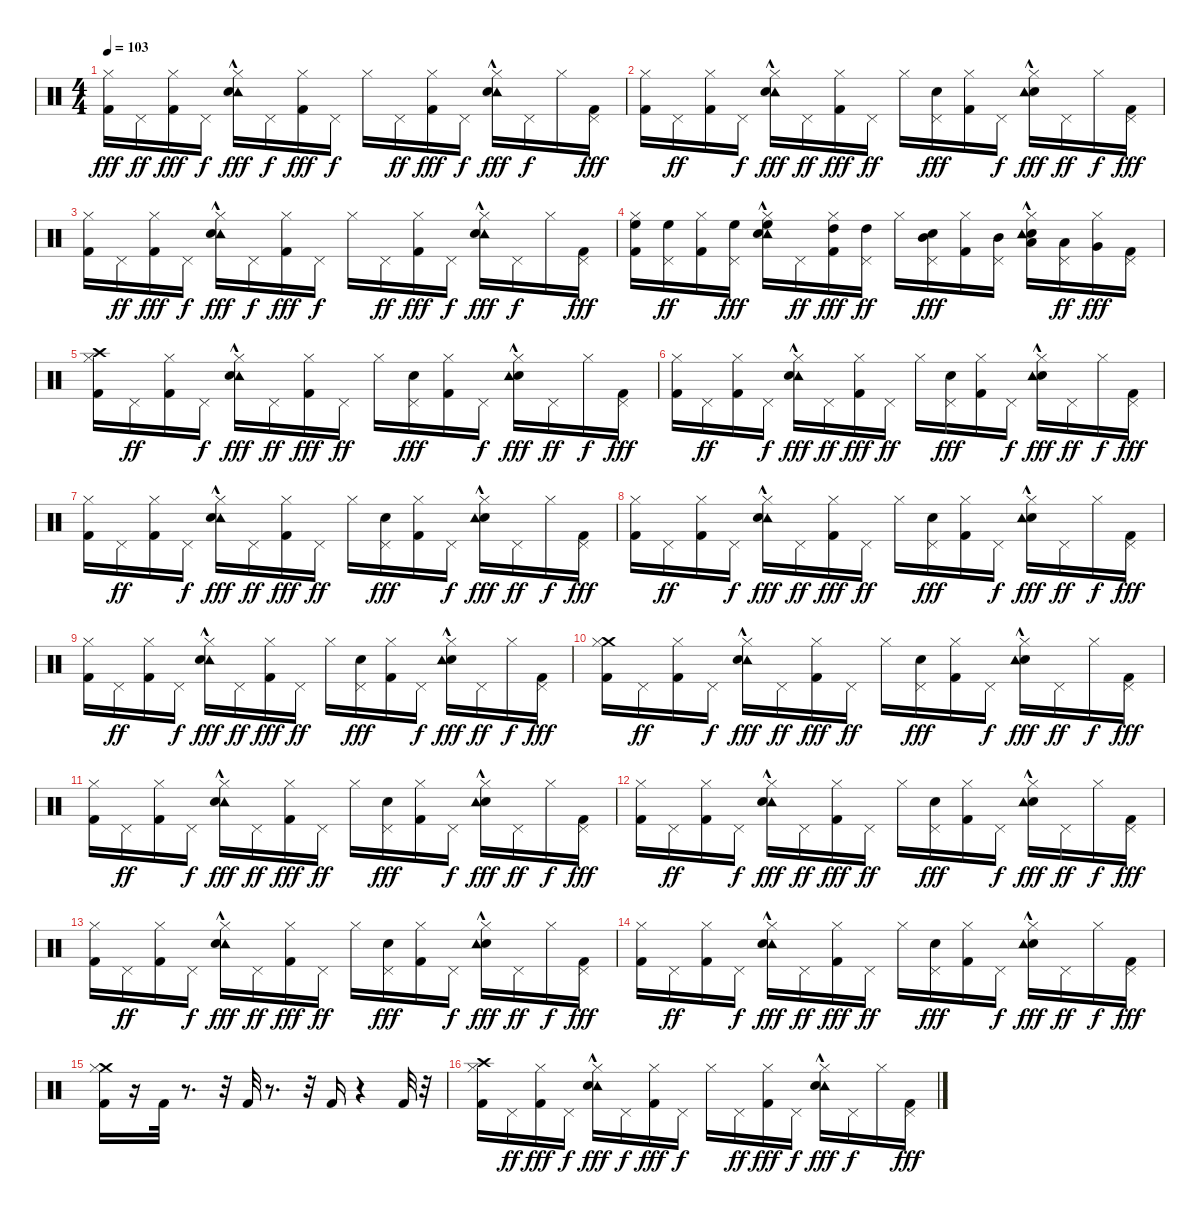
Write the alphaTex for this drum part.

\track "" {instrument percussion}
\staff {score}
\articulation defaults
\ts (4 4)
\tempo 103
\clef neutral
\ks c
("Hi-Hat (closed)" "Kick (hit) 2").16{dy fff} "Pedal Hi-Hat (hit)".16{dy ff} ("Hi-Hat (closed)" "Kick (hit) 2").16{dy fff} "Pedal Hi-Hat (hit)".16{dy f} ("Tambourine (hit)"{hac} "Hi-Hat (closed)" "Electric Snare (hit)").16{dy fff} "Pedal Hi-Hat (hit)".16{dy f} ("Kick (hit) 2" "Hi-Hat (closed)").16{dy fff} "Pedal Hi-Hat (hit)".16{dy f} "Hi-Hat (closed)".16 "Pedal Hi-Hat (hit)".16{dy ff} ("Kick (hit) 2" "Hi-Hat (closed)").16{dy fff} "Pedal Hi-Hat (hit)".16{dy f} ("Tambourine (hit)"{hac} "Electric Snare (hit)" "Hi-Hat (closed)").16{dy fff} "Pedal Hi-Hat (hit)".16{dy f} "Hi-Hat (closed)".16 ("Kick (hit) 2" "Pedal Hi-Hat (hit)").16{dy fff} |
("Kick (hit) 2" "Hi-Hat (closed)").16 "Pedal Hi-Hat (hit)".16{dy ff} ("Kick (hit) 2" "Hi-Hat (closed)").16 "Pedal Hi-Hat (hit)".16{dy f} ("Tambourine (hit)"{hac} "Hi-Hat (closed)" "Electric Snare (hit)").16{dy fff} "Pedal Hi-Hat (hit)".16{dy ff} ("Hi-Hat (closed)" "Kick (hit) 2").16{dy fff} "Pedal Hi-Hat (hit)".16{dy ff} "Hi-Hat (closed)".16 ("Pedal Hi-Hat (hit)" "Electric Snare (hit)").16{dy fff} ("Kick (hit) 2" "Hi-Hat (closed)").16 "Pedal Hi-Hat (hit)".16{dy f} ("Electric Snare (hit)" "Hi-Hat (closed)" "Tambourine (hit)"{hac}).16{dy fff} "Pedal Hi-Hat (hit)".16{dy ff} "Hi-Hat (closed)".16{dy f} ("Pedal Hi-Hat (hit)" "Kick (hit) 2").16{dy fff} |
("Hi-Hat (closed)" "Kick (hit) 2").16 "Pedal Hi-Hat (hit)".16{dy ff} ("Hi-Hat (closed)" "Kick (hit) 2").16{dy fff} "Pedal Hi-Hat (hit)".16{dy f} ("Tambourine (hit)"{hac} "Hi-Hat (closed)" "Electric Snare (hit)").16{dy fff} "Pedal Hi-Hat (hit)".16{dy f} ("Kick (hit) 2" "Hi-Hat (closed)").16{dy fff} "Pedal Hi-Hat (hit)".16{dy f} "Hi-Hat (closed)".16 "Pedal Hi-Hat (hit)".16{dy ff} ("Kick (hit) 2" "Hi-Hat (closed)").16{dy fff} "Pedal Hi-Hat (hit)".16{dy f} ("Tambourine (hit)"{hac} "Electric Snare (hit)" "Hi-Hat (closed)").16{dy fff} "Pedal Hi-Hat (hit)".16{dy f} "Hi-Hat (closed)".16 ("Kick (hit) 2" "Pedal Hi-Hat (hit)").16{dy fff} |
("High Floor Tom (hit)" "Kick (hit) 2" "Hi-Hat (closed)").16 ("High Floor Tom (hit)" "Pedal Hi-Hat (hit)").16{dy ff} ("Kick (hit) 2" "Hi-Hat (closed)").16 ("High Floor Tom (hit)" "Pedal Hi-Hat (hit)").16{dy fff} ("High Floor Tom (hit)" "Tambourine (hit)"{hac} "Hi-Hat (closed)" "Electric Snare (hit)").16 "Pedal Hi-Hat (hit)".16{dy ff} ("High Tom (hit)" "Hi-Hat (closed)" "Kick (hit) 2").16{dy fff} ("High Tom (hit)" "Pedal Hi-Hat (hit)").16{dy ff} "Hi-Hat (closed)".16 ("Mid Tom (hit)" "Pedal Hi-Hat (hit)" "Electric Snare (hit)").16{dy fff} ("Kick (hit) 2" "Hi-Hat (closed)").16 ("Mid Tom (hit)" "Pedal Hi-Hat (hit)").16 ("Low Tom (hit)" "Electric Snare (hit)" "Hi-Hat (closed)" "Tambourine (hit)"{hac}).16 ("Low Tom (hit)" "Pedal Hi-Hat (hit)").16{dy ff} ("Very Low Tom (hit)" "Hi-Hat (closed)").16{dy fff} ("Pedal Hi-Hat (hit)" "Kick (hit) 2").16 |
("Crash high (hit)" "Kick (hit) 2" "Hi-Hat (closed)").16 "Pedal Hi-Hat (hit)".16{dy ff} ("Kick (hit) 2" "Hi-Hat (closed)").16 "Pedal Hi-Hat (hit)".16{dy f} ("Tambourine (hit)"{hac} "Hi-Hat (closed)" "Electric Snare (hit)").16{dy fff} "Pedal Hi-Hat (hit)".16{dy ff} ("Hi-Hat (closed)" "Kick (hit) 2").16{dy fff} "Pedal Hi-Hat (hit)".16{dy ff} "Hi-Hat (closed)".16 ("Pedal Hi-Hat (hit)" "Electric Snare (hit)").16{dy fff} ("Kick (hit) 2" "Hi-Hat (closed)").16 "Pedal Hi-Hat (hit)".16{dy f} ("Electric Snare (hit)" "Hi-Hat (closed)" "Tambourine (hit)"{hac}).16{dy fff} "Pedal Hi-Hat (hit)".16{dy ff} "Hi-Hat (closed)".16{dy f} ("Pedal Hi-Hat (hit)" "Kick (hit) 2").16{dy fff} |
("Kick (hit) 2" "Hi-Hat (closed)").16 "Pedal Hi-Hat (hit)".16{dy ff} ("Kick (hit) 2" "Hi-Hat (closed)").16 "Pedal Hi-Hat (hit)".16{dy f} ("Tambourine (hit)"{hac} "Hi-Hat (closed)" "Electric Snare (hit)").16{dy fff} "Pedal Hi-Hat (hit)".16{dy ff} ("Hi-Hat (closed)" "Kick (hit) 2").16{dy fff} "Pedal Hi-Hat (hit)".16{dy ff} "Hi-Hat (closed)".16 ("Pedal Hi-Hat (hit)" "Electric Snare (hit)").16{dy fff} ("Kick (hit) 2" "Hi-Hat (closed)").16 "Pedal Hi-Hat (hit)".16{dy f} ("Electric Snare (hit)" "Hi-Hat (closed)" "Tambourine (hit)"{hac}).16{dy fff} "Pedal Hi-Hat (hit)".16{dy ff} "Hi-Hat (closed)".16{dy f} ("Pedal Hi-Hat (hit)" "Kick (hit) 2").16{dy fff} |
("Kick (hit) 2" "Hi-Hat (closed)").16 "Pedal Hi-Hat (hit)".16{dy ff} ("Kick (hit) 2" "Hi-Hat (closed)").16 "Pedal Hi-Hat (hit)".16{dy f} ("Tambourine (hit)"{hac} "Hi-Hat (closed)" "Electric Snare (hit)").16{dy fff} "Pedal Hi-Hat (hit)".16{dy ff} ("Hi-Hat (closed)" "Kick (hit) 2").16{dy fff} "Pedal Hi-Hat (hit)".16{dy ff} "Hi-Hat (closed)".16 ("Pedal Hi-Hat (hit)" "Electric Snare (hit)").16{dy fff} ("Kick (hit) 2" "Hi-Hat (closed)").16 "Pedal Hi-Hat (hit)".16{dy f} ("Electric Snare (hit)" "Hi-Hat (closed)" "Tambourine (hit)"{hac}).16{dy fff} "Pedal Hi-Hat (hit)".16{dy ff} "Hi-Hat (closed)".16{dy f} ("Pedal Hi-Hat (hit)" "Kick (hit) 2").16{dy fff} |
("Kick (hit) 2" "Hi-Hat (closed)").16 "Pedal Hi-Hat (hit)".16{dy ff} ("Kick (hit) 2" "Hi-Hat (closed)").16 "Pedal Hi-Hat (hit)".16{dy f} ("Tambourine (hit)"{hac} "Hi-Hat (closed)" "Electric Snare (hit)").16{dy fff} "Pedal Hi-Hat (hit)".16{dy ff} ("Hi-Hat (closed)" "Kick (hit) 2").16{dy fff} "Pedal Hi-Hat (hit)".16{dy ff} "Hi-Hat (closed)".16 ("Pedal Hi-Hat (hit)" "Electric Snare (hit)").16{dy fff} ("Kick (hit) 2" "Hi-Hat (closed)").16 "Pedal Hi-Hat (hit)".16{dy f} ("Electric Snare (hit)" "Hi-Hat (closed)" "Tambourine (hit)"{hac}).16{dy fff} "Pedal Hi-Hat (hit)".16{dy ff} "Hi-Hat (closed)".16{dy f} ("Pedal Hi-Hat (hit)" "Kick (hit) 2").16{dy fff} |
("Kick (hit) 2" "Hi-Hat (closed)").16 "Pedal Hi-Hat (hit)".16{dy ff} ("Kick (hit) 2" "Hi-Hat (closed)").16 "Pedal Hi-Hat (hit)".16{dy f} ("Tambourine (hit)"{hac} "Hi-Hat (closed)" "Electric Snare (hit)").16{dy fff} "Pedal Hi-Hat (hit)".16{dy ff} ("Hi-Hat (closed)" "Kick (hit) 2").16{dy fff} "Pedal Hi-Hat (hit)".16{dy ff} "Hi-Hat (closed)".16 ("Pedal Hi-Hat (hit)" "Electric Snare (hit)").16{dy fff} ("Kick (hit) 2" "Hi-Hat (closed)").16 "Pedal Hi-Hat (hit)".16{dy f} ("Electric Snare (hit)" "Hi-Hat (closed)" "Tambourine (hit)"{hac}).16{dy fff} "Pedal Hi-Hat (hit)".16{dy ff} "Hi-Hat (closed)".16{dy f} ("Pedal Hi-Hat (hit)" "Kick (hit) 2").16{dy fff} |
("Crash medium (hit)" "Kick (hit) 2" "Hi-Hat (closed)").16 "Pedal Hi-Hat (hit)".16{dy ff} ("Kick (hit) 2" "Hi-Hat (closed)").16 "Pedal Hi-Hat (hit)".16{dy f} ("Tambourine (hit)"{hac} "Hi-Hat (closed)" "Electric Snare (hit)").16{dy fff} "Pedal Hi-Hat (hit)".16{dy ff} ("Hi-Hat (closed)" "Kick (hit) 2").16{dy fff} "Pedal Hi-Hat (hit)".16{dy ff} "Hi-Hat (closed)".16 ("Pedal Hi-Hat (hit)" "Electric Snare (hit)").16{dy fff} ("Kick (hit) 2" "Hi-Hat (closed)").16 "Pedal Hi-Hat (hit)".16{dy f} ("Electric Snare (hit)" "Hi-Hat (closed)" "Tambourine (hit)"{hac}).16{dy fff} "Pedal Hi-Hat (hit)".16{dy ff} "Hi-Hat (closed)".16{dy f} ("Pedal Hi-Hat (hit)" "Kick (hit) 2").16{dy fff} |
("Kick (hit) 2" "Hi-Hat (closed)").16 "Pedal Hi-Hat (hit)".16{dy ff} ("Kick (hit) 2" "Hi-Hat (closed)").16 "Pedal Hi-Hat (hit)".16{dy f} ("Tambourine (hit)"{hac} "Hi-Hat (closed)" "Electric Snare (hit)").16{dy fff} "Pedal Hi-Hat (hit)".16{dy ff} ("Hi-Hat (closed)" "Kick (hit) 2").16{dy fff} "Pedal Hi-Hat (hit)".16{dy ff} "Hi-Hat (closed)".16 ("Pedal Hi-Hat (hit)" "Electric Snare (hit)").16{dy fff} ("Kick (hit) 2" "Hi-Hat (closed)").16 "Pedal Hi-Hat (hit)".16{dy f} ("Electric Snare (hit)" "Hi-Hat (closed)" "Tambourine (hit)"{hac}).16{dy fff} "Pedal Hi-Hat (hit)".16{dy ff} "Hi-Hat (closed)".16{dy f} ("Pedal Hi-Hat (hit)" "Kick (hit) 2").16{dy fff} |
("Kick (hit) 2" "Hi-Hat (closed)").16 "Pedal Hi-Hat (hit)".16{dy ff} ("Kick (hit) 2" "Hi-Hat (closed)").16 "Pedal Hi-Hat (hit)".16{dy f} ("Tambourine (hit)"{hac} "Hi-Hat (closed)" "Electric Snare (hit)").16{dy fff} "Pedal Hi-Hat (hit)".16{dy ff} ("Hi-Hat (closed)" "Kick (hit) 2").16{dy fff} "Pedal Hi-Hat (hit)".16{dy ff} "Hi-Hat (closed)".16 ("Pedal Hi-Hat (hit)" "Electric Snare (hit)").16{dy fff} ("Kick (hit) 2" "Hi-Hat (closed)").16 "Pedal Hi-Hat (hit)".16{dy f} ("Electric Snare (hit)" "Hi-Hat (closed)" "Tambourine (hit)"{hac}).16{dy fff} "Pedal Hi-Hat (hit)".16{dy ff} "Hi-Hat (closed)".16{dy f} ("Pedal Hi-Hat (hit)" "Kick (hit) 2").16{dy fff} |
("Kick (hit) 2" "Hi-Hat (closed)").16 "Pedal Hi-Hat (hit)".16{dy ff} ("Kick (hit) 2" "Hi-Hat (closed)").16 "Pedal Hi-Hat (hit)".16{dy f} ("Tambourine (hit)"{hac} "Hi-Hat (closed)" "Electric Snare (hit)").16{dy fff} "Pedal Hi-Hat (hit)".16{dy ff} ("Hi-Hat (closed)" "Kick (hit) 2").16{dy fff} "Pedal Hi-Hat (hit)".16{dy ff} "Hi-Hat (closed)".16 ("Pedal Hi-Hat (hit)" "Electric Snare (hit)").16{dy fff} ("Kick (hit) 2" "Hi-Hat (closed)").16 "Pedal Hi-Hat (hit)".16{dy f} ("Electric Snare (hit)" "Hi-Hat (closed)" "Tambourine (hit)"{hac}).16{dy fff} "Pedal Hi-Hat (hit)".16{dy ff} "Hi-Hat (closed)".16{dy f} ("Pedal Hi-Hat (hit)" "Kick (hit) 2").16{dy fff} |
("Kick (hit) 2" "Hi-Hat (closed)").16 "Pedal Hi-Hat (hit)".16{dy ff} ("Kick (hit) 2" "Hi-Hat (closed)").16 "Pedal Hi-Hat (hit)".16{dy f} ("Tambourine (hit)"{hac} "Hi-Hat (closed)" "Electric Snare (hit)").16{dy fff} "Pedal Hi-Hat (hit)".16{dy ff} ("Hi-Hat (closed)" "Kick (hit) 2").16{dy fff} "Pedal Hi-Hat (hit)".16{dy ff} "Hi-Hat (closed)".16 ("Pedal Hi-Hat (hit)" "Electric Snare (hit)").16{dy fff} ("Kick (hit) 2" "Hi-Hat (closed)").16 "Pedal Hi-Hat (hit)".16{dy f} ("Electric Snare (hit)" "Hi-Hat (closed)" "Tambourine (hit)"{hac}).16{dy fff} "Pedal Hi-Hat (hit)".16{dy ff} "Hi-Hat (closed)".16{dy f} ("Pedal Hi-Hat (hit)" "Kick (hit) 2").16{dy fff} |
("Crash medium (hit)" "Kick (hit) 2" "Hi-Hat (closed)").16 r.16 "Kick (hit) 2".32 r.8{d} r.32 "Kick (hit) 2".32 r.8{d} r.32 "Kick (hit) 2".16 r.4 "Kick (hit) 2".32 r.32 |
("Hi-Hat (closed)" "Kick (hit) 2" "Crash high (hit)").16 "Pedal Hi-Hat (hit)".16{dy ff} ("Hi-Hat (closed)" "Kick (hit) 2").16{dy fff} "Pedal Hi-Hat (hit)".16{dy f} ("Tambourine (hit)"{hac} "Hi-Hat (closed)" "Electric Snare (hit)").16{dy fff} "Pedal Hi-Hat (hit)".16{dy f} ("Kick (hit) 2" "Hi-Hat (closed)").16{dy fff} "Pedal Hi-Hat (hit)".16{dy f} "Hi-Hat (closed)".16 "Pedal Hi-Hat (hit)".16{dy ff} ("Kick (hit) 2" "Hi-Hat (closed)").16{dy fff} "Pedal Hi-Hat (hit)".16{dy f} ("Tambourine (hit)"{hac} "Electric Snare (hit)" "Hi-Hat (closed)").16{dy fff} "Pedal Hi-Hat (hit)".16{dy f} "Hi-Hat (closed)".16 ("Kick (hit) 2" "Pedal Hi-Hat (hit)").16{dy fff}
